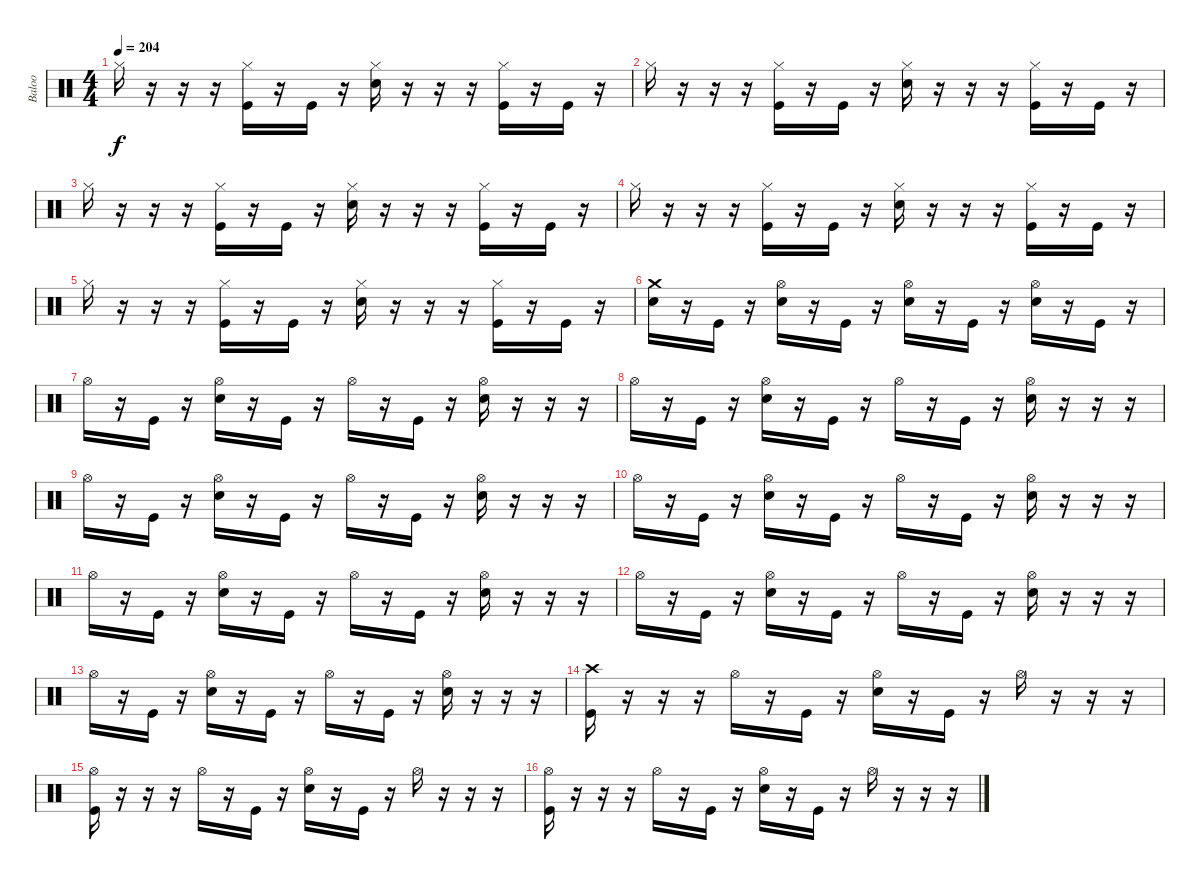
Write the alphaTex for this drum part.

\track ("Baloo" "Baloo") {instrument percussion}
\staff {score}
\articulation defaults
\ts (4 4)
\tempo 204
\clef neutral
\ks c "Hi-Hat (closed)".16{dy f}
r.16 r.16 r.16 ("Hi-Hat (closed)" "Kick (hit)").16 r.16 "Kick (hit)".16 r.16 ("Hi-Hat (closed)" "Electric Snare (hit)").16 r.16 r.16 r.16 ("Hi-Hat (closed)" "Kick (hit)").16 r.16 "Kick (hit)".16 r.16 |
"Hi-Hat (closed)".16 r.16 r.16 r.16 ("Hi-Hat (closed)" "Kick (hit)").16 r.16 "Kick (hit)".16 r.16 ("Hi-Hat (closed)" "Electric Snare (hit)").16 r.16 r.16 r.16 ("Hi-Hat (closed)" "Kick (hit)").16 r.16 "Kick (hit)".16 r.16 |
"Hi-Hat (closed)".16 r.16 r.16 r.16 ("Hi-Hat (closed)" "Kick (hit)").16 r.16 "Kick (hit)".16 r.16 ("Hi-Hat (closed)" "Electric Snare (hit)").16 r.16 r.16 r.16 ("Hi-Hat (closed)" "Kick (hit)").16 r.16 "Kick (hit)".16 r.16 |
"Hi-Hat (closed)".16 r.16 r.16 r.16 ("Hi-Hat (closed)" "Kick (hit)").16 r.16 "Kick (hit)".16 r.16 ("Hi-Hat (closed)" "Electric Snare (hit)").16 r.16 r.16 r.16 ("Hi-Hat (closed)" "Kick (hit)").16 r.16 "Kick (hit)".16 r.16 |
"Hi-Hat (closed)".16 r.16 r.16 r.16 ("Hi-Hat (closed)" "Kick (hit)").16 r.16 "Kick (hit)".16 r.16 ("Hi-Hat (closed)" "Electric Snare (hit)").16 r.16 r.16 r.16 ("Hi-Hat (closed)" "Kick (hit)").16 r.16 "Kick (hit)".16 r.16 |
("Crash medium (hit)" "Electric Snare (hit)").16 r.16 "Kick (hit)".16 r.16 ("Hi-Hat (open)" "Electric Snare (hit)").16 r.16 "Kick (hit)".16 r.16 ("Hi-Hat (open)" "Electric Snare (hit)").16 r.16 "Kick (hit)".16 r.16 ("Hi-Hat (open)" "Electric Snare (hit)").16 r.16 "Kick (hit)".16 r.16 |
"Hi-Hat (open)".16 r.16 "Kick (hit)".16 r.16 ("Hi-Hat (open)" "Electric Snare (hit)").16 r.16 "Kick (hit)".16 r.16 "Hi-Hat (open)".16 r.16 "Kick (hit)".16 r.16 ("Hi-Hat (open)" "Electric Snare (hit)").16 r.16 r.16 r.16 |
"Hi-Hat (open)".16 r.16 "Kick (hit)".16 r.16 ("Hi-Hat (open)" "Electric Snare (hit)").16 r.16 "Kick (hit)".16 r.16 "Hi-Hat (open)".16 r.16 "Kick (hit)".16 r.16 ("Hi-Hat (open)" "Electric Snare (hit)").16 r.16 r.16 r.16 |
"Hi-Hat (open)".16 r.16 "Kick (hit)".16 r.16 ("Hi-Hat (open)" "Electric Snare (hit)").16 r.16 "Kick (hit)".16 r.16 "Hi-Hat (open)".16 r.16 "Kick (hit)".16 r.16 ("Hi-Hat (open)" "Electric Snare (hit)").16 r.16 r.16 r.16 |
"Hi-Hat (open)".16 r.16 "Kick (hit)".16 r.16 ("Hi-Hat (open)" "Electric Snare (hit)").16 r.16 "Kick (hit)".16 r.16 "Hi-Hat (open)".16 r.16 "Kick (hit)".16 r.16 ("Hi-Hat (open)" "Electric Snare (hit)").16 r.16 r.16 r.16 |
"Hi-Hat (open)".16 r.16 "Kick (hit)".16 r.16 ("Hi-Hat (open)" "Electric Snare (hit)").16 r.16 "Kick (hit)".16 r.16 "Hi-Hat (open)".16 r.16 "Kick (hit)".16 r.16 ("Hi-Hat (open)" "Electric Snare (hit)").16 r.16 r.16 r.16 |
"Hi-Hat (open)".16 r.16 "Kick (hit)".16 r.16 ("Hi-Hat (open)" "Electric Snare (hit)").16 r.16 "Kick (hit)".16 r.16 "Hi-Hat (open)".16 r.16 "Kick (hit)".16 r.16 ("Hi-Hat (open)" "Electric Snare (hit)").16 r.16 r.16 r.16 |
"Hi-Hat (open)".16 r.16 "Kick (hit)".16 r.16 ("Hi-Hat (open)" "Electric Snare (hit)").16 r.16 "Kick (hit)".16 r.16 "Hi-Hat (open)".16 r.16 "Kick (hit)".16 r.16 ("Hi-Hat (open)" "Electric Snare (hit)").16 r.16 r.16 r.16 |
("Crash high (hit)" "Kick (hit)").16 r.16 r.16 r.16 "Hi-Hat (open)".16 r.16 "Kick (hit)".16 r.16 ("Hi-Hat (open)" "Electric Snare (hit)").16 r.16 "Kick (hit)".16 r.16 "Hi-Hat (open)".16 r.16 r.16 r.16 |
("Hi-Hat (open)" "Kick (hit)").16 r.16 r.16 r.16 "Hi-Hat (open)".16 r.16 "Kick (hit)".16 r.16 ("Hi-Hat (open)" "Electric Snare (hit)").16 r.16 "Kick (hit)".16 r.16 "Hi-Hat (open)".16 r.16 r.16 r.16 |
("Hi-Hat (open)" "Kick (hit)").16 r.16 r.16 r.16 "Hi-Hat (open)".16 r.16 "Kick (hit)".16 r.16 ("Hi-Hat (open)" "Electric Snare (hit)").16 r.16 "Kick (hit)".16 r.16 "Hi-Hat (open)".16 r.16 r.16 r.16
